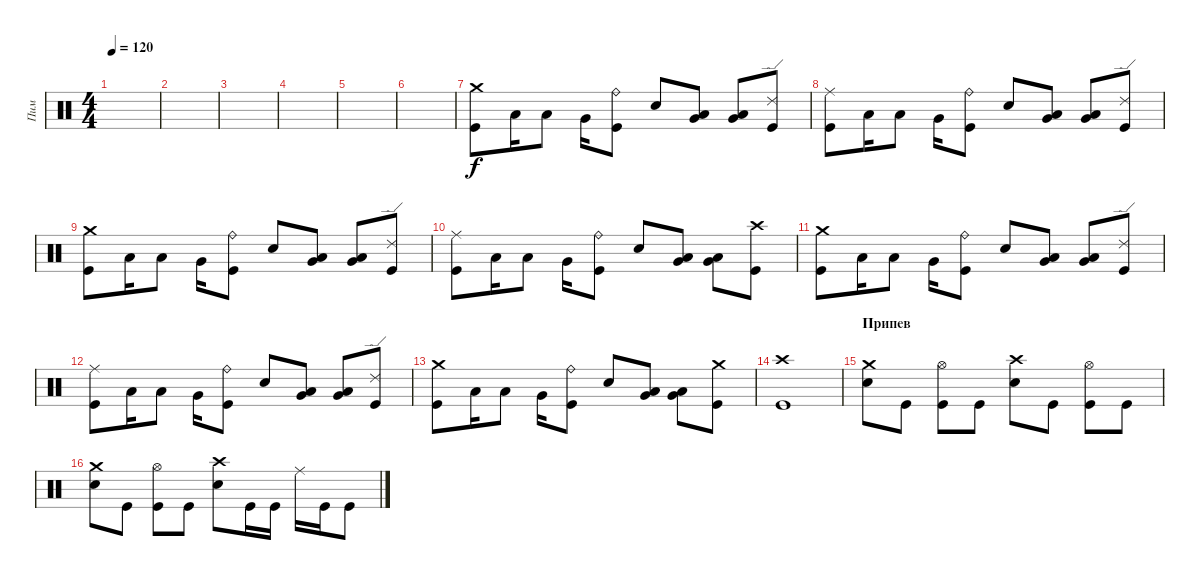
\track ("Пим" "Пим") {instrument percussion}
\staff {score}
\articulation defaults
\ts (4 4)
\tempo 120
\clef neutral
\ks c
|
|
|
|
|
|
("Crash medium (hit)" "Kick (hit)").8 "Low Tom (hit)".16 "Low Tom (hit)".8 "Very Low Tom (hit)".16 ("Ride (bell)" "Kick (hit)").8 "Snare (hit) 2".8 ("Low Tom (hit)" "Very Low Tom (hit)").8 ("Low Tom (hit)" "Very Low Tom (hit)").8 ("Ride (edge) 2" "Kick (hit)").8 |
("Ride (middle)" "Kick (hit)").8 "Low Tom (hit)".16 "Low Tom (hit)".8 "Very Low Tom (hit)".16 ("Ride (bell)" "Kick (hit)").8 "Snare (hit) 2".8 ("Low Tom (hit)" "Very Low Tom (hit)").8 ("Low Tom (hit)" "Very Low Tom (hit)").8 ("Ride (edge) 2" "Kick (hit)").8 |
("Crash medium (hit)" "Kick (hit)").8 "Low Tom (hit)".16 "Low Tom (hit)".8 "Very Low Tom (hit)".16 ("Ride (bell)" "Kick (hit)").8 "Snare (hit) 2".8 ("Low Tom (hit)" "Very Low Tom (hit)").8 ("Low Tom (hit)" "Very Low Tom (hit)").8 ("Ride (edge) 2" "Kick (hit)").8 |
("Ride (middle)" "Kick (hit)").8 "Low Tom (hit)".16 "Low Tom (hit)".8 "Very Low Tom (hit)".16 ("Ride (bell)" "Kick (hit)").8 "Snare (hit) 2".8 ("Low Tom (hit)" "Very Low Tom (hit)").8 ("Low Tom (hit)" "Very Low Tom (hit)").8 ("Crash high (hit)" "Kick (hit)").8 |
("Crash medium (hit)" "Kick (hit)").8 "Low Tom (hit)".16 "Low Tom (hit)".8 "Very Low Tom (hit)".16 ("Ride (bell)" "Kick (hit)").8 "Snare (hit) 2".8 ("Low Tom (hit)" "Very Low Tom (hit)").8 ("Low Tom (hit)" "Very Low Tom (hit)").8 ("Ride (edge) 2" "Kick (hit)").8 |
("Ride (middle)" "Kick (hit)").8 "Low Tom (hit)".16 "Low Tom (hit)".8 "Very Low Tom (hit)".16 ("Ride (bell)" "Kick (hit)").8 "Snare (hit) 2".8 ("Low Tom (hit)" "Very Low Tom (hit)").8 ("Low Tom (hit)" "Very Low Tom (hit)").8 ("Ride (edge) 2" "Kick (hit)").8 |
("Crash medium (hit)" "Kick (hit)").8 "Low Tom (hit)".16 "Low Tom (hit)".8 "Very Low Tom (hit)".16 ("Ride (bell)" "Kick (hit)").8 "Snare (hit) 2".8 ("Low Tom (hit)" "Very Low Tom (hit)").8 ("Low Tom (hit)" "Very Low Tom (hit)").8 ("Crash medium (hit)" "Kick (hit)").8 |
("Crash high (hit)" "Kick (hit)").1 |
\section ("" "Припев")
("Crash medium (hit)" "Snare (hit) 2").8 "Kick (hit)".8 ("Hi-Hat (open)" "Kick (hit)").8 "Kick (hit)".8 ("Crash high (hit)" "Snare (hit) 2").8 "Kick (hit)".8 ("Hi-Hat (open)" "Kick (hit)").8 "Kick (hit)".8 |
("Crash medium (hit)" "Snare (hit) 2").8 "Kick (hit)".8 ("Hi-Hat (open)" "Kick (hit)").8 "Kick (hit)".8 ("Crash high (hit)" "Snare (hit) 2").8 "Kick (hit)".16 "Kick (hit)".16 "Ride (middle)".16 "Kick (hit)".16 "Kick (hit)".8
